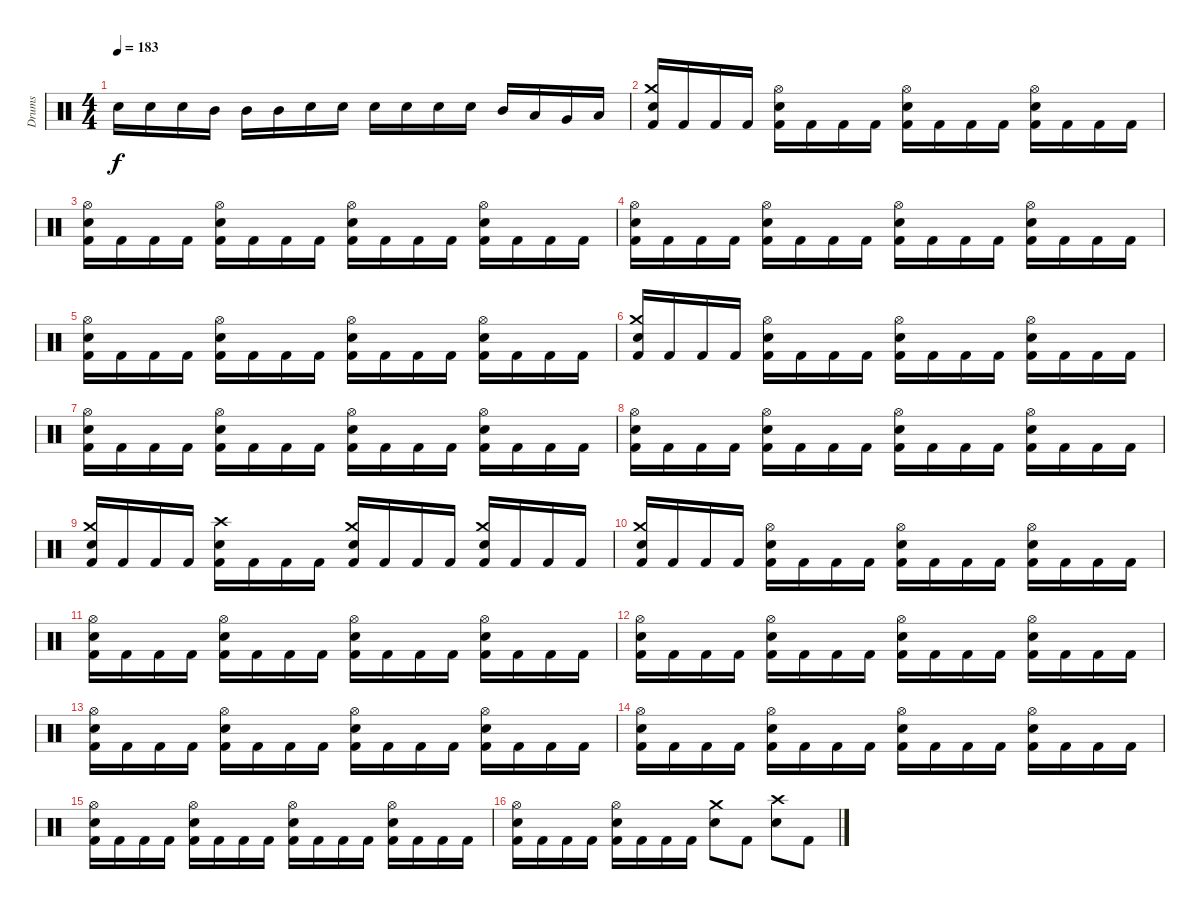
\track ("Drums" "Drums") {instrument percussion}
\staff {score}
\articulation defaults
\ts (4 4)
\tempo 183
\clef neutral
\ks c "Electric Snare (hit)".16{dy f} "Electric Snare (hit)".16 "Electric Snare (hit)".16 "Mid Tom (hit)".16 "Mid Tom (hit)".16 "Mid Tom (hit)".16 "Electric Snare (hit)".16 "Electric Snare (hit)".16 "Electric Snare (hit)".16 "Electric Snare (hit)".16 "Electric Snare (hit)".16 "Electric Snare (hit)".16 "Mid Tom (hit)".16 "Low Tom (hit)".16 "Very Low Tom (hit)".16 "Low Floor Tom (hit)".16
|
("Crash medium (hit)" "Electric Snare (hit)" "Kick (hit) 2").16 "Kick (hit) 2".16 "Kick (hit) 2".16 "Kick (hit) 2".16 ("Hi-Hat (open)" "Electric Snare (hit)" "Kick (hit) 2").16 "Kick (hit) 2".16 "Kick (hit) 2".16 "Kick (hit) 2".16 ("Hi-Hat (open)" "Electric Snare (hit)" "Kick (hit) 2").16 "Kick (hit) 2".16 "Kick (hit) 2".16 "Kick (hit) 2".16 ("Hi-Hat (open)" "Electric Snare (hit)" "Kick (hit) 2").16 "Kick (hit) 2".16 "Kick (hit) 2".16 "Kick (hit) 2".16 |
("Hi-Hat (open)" "Electric Snare (hit)" "Kick (hit) 2").16 "Kick (hit) 2".16 "Kick (hit) 2".16 "Kick (hit) 2".16 ("Hi-Hat (open)" "Electric Snare (hit)" "Kick (hit) 2").16 "Kick (hit) 2".16 "Kick (hit) 2".16 "Kick (hit) 2".16 ("Hi-Hat (open)" "Electric Snare (hit)" "Kick (hit) 2").16 "Kick (hit) 2".16 "Kick (hit) 2".16 "Kick (hit) 2".16 ("Hi-Hat (open)" "Electric Snare (hit)" "Kick (hit) 2").16 "Kick (hit) 2".16 "Kick (hit) 2".16 "Kick (hit) 2".16 |
("Hi-Hat (open)" "Electric Snare (hit)" "Kick (hit) 2").16 "Kick (hit) 2".16 "Kick (hit) 2".16 "Kick (hit) 2".16 ("Hi-Hat (open)" "Electric Snare (hit)" "Kick (hit) 2").16 "Kick (hit) 2".16 "Kick (hit) 2".16 "Kick (hit) 2".16 ("Hi-Hat (open)" "Electric Snare (hit)" "Kick (hit) 2").16 "Kick (hit) 2".16 "Kick (hit) 2".16 "Kick (hit) 2".16 ("Hi-Hat (open)" "Electric Snare (hit)" "Kick (hit) 2").16 "Kick (hit) 2".16 "Kick (hit) 2".16 "Kick (hit) 2".16 |
("Hi-Hat (open)" "Electric Snare (hit)" "Kick (hit) 2").16 "Kick (hit) 2".16 "Kick (hit) 2".16 "Kick (hit) 2".16 ("Hi-Hat (open)" "Electric Snare (hit)" "Kick (hit) 2").16 "Kick (hit) 2".16 "Kick (hit) 2".16 "Kick (hit) 2".16 ("Hi-Hat (open)" "Electric Snare (hit)" "Kick (hit) 2").16 "Kick (hit) 2".16 "Kick (hit) 2".16 "Kick (hit) 2".16 ("Hi-Hat (open)" "Electric Snare (hit)" "Kick (hit) 2").16 "Kick (hit) 2".16 "Kick (hit) 2".16 "Kick (hit) 2".16 |
("Crash medium (hit)" "Electric Snare (hit)" "Kick (hit) 2").16 "Kick (hit) 2".16 "Kick (hit) 2".16 "Kick (hit) 2".16 ("Hi-Hat (open)" "Electric Snare (hit)" "Kick (hit) 2").16 "Kick (hit) 2".16 "Kick (hit) 2".16 "Kick (hit) 2".16 ("Hi-Hat (open)" "Electric Snare (hit)" "Kick (hit) 2").16 "Kick (hit) 2".16 "Kick (hit) 2".16 "Kick (hit) 2".16 ("Hi-Hat (open)" "Electric Snare (hit)" "Kick (hit) 2").16 "Kick (hit) 2".16 "Kick (hit) 2".16 "Kick (hit) 2".16 |
("Hi-Hat (open)" "Electric Snare (hit)" "Kick (hit) 2").16 "Kick (hit) 2".16 "Kick (hit) 2".16 "Kick (hit) 2".16 ("Hi-Hat (open)" "Electric Snare (hit)" "Kick (hit) 2").16 "Kick (hit) 2".16 "Kick (hit) 2".16 "Kick (hit) 2".16 ("Hi-Hat (open)" "Electric Snare (hit)" "Kick (hit) 2").16 "Kick (hit) 2".16 "Kick (hit) 2".16 "Kick (hit) 2".16 ("Hi-Hat (open)" "Electric Snare (hit)" "Kick (hit) 2").16 "Kick (hit) 2".16 "Kick (hit) 2".16 "Kick (hit) 2".16 |
("Hi-Hat (open)" "Electric Snare (hit)" "Kick (hit) 2").16 "Kick (hit) 2".16 "Kick (hit) 2".16 "Kick (hit) 2".16 ("Hi-Hat (open)" "Electric Snare (hit)" "Kick (hit) 2").16 "Kick (hit) 2".16 "Kick (hit) 2".16 "Kick (hit) 2".16 ("Hi-Hat (open)" "Electric Snare (hit)" "Kick (hit) 2").16 "Kick (hit) 2".16 "Kick (hit) 2".16 "Kick (hit) 2".16 ("Hi-Hat (open)" "Electric Snare (hit)" "Kick (hit) 2").16 "Kick (hit) 2".16 "Kick (hit) 2".16 "Kick (hit) 2".16 |
("Crash medium (hit)" "Electric Snare (hit)" "Kick (hit) 2").16 "Kick (hit) 2".16 "Kick (hit) 2".16 "Kick (hit) 2".16 ("Crash high (hit)" "Electric Snare (hit)" "Kick (hit) 2").16 "Kick (hit) 2".16 "Kick (hit) 2".16 "Kick (hit) 2".16 ("Crash medium (hit)" "Electric Snare (hit)" "Kick (hit) 2").16 "Kick (hit) 2".16 "Kick (hit) 2".16 "Kick (hit) 2".16 ("Crash medium (hit)" "Electric Snare (hit)" "Kick (hit) 2").16 "Kick (hit) 2".16 "Kick (hit) 2".16 "Kick (hit) 2".16 |
("Crash medium (hit)" "Electric Snare (hit)" "Kick (hit) 2").16 "Kick (hit) 2".16 "Kick (hit) 2".16 "Kick (hit) 2".16 ("Hi-Hat (open)" "Electric Snare (hit)" "Kick (hit) 2").16 "Kick (hit) 2".16 "Kick (hit) 2".16 "Kick (hit) 2".16 ("Hi-Hat (open)" "Electric Snare (hit)" "Kick (hit) 2").16 "Kick (hit) 2".16 "Kick (hit) 2".16 "Kick (hit) 2".16 ("Hi-Hat (open)" "Electric Snare (hit)" "Kick (hit) 2").16 "Kick (hit) 2".16 "Kick (hit) 2".16 "Kick (hit) 2".16 |
("Hi-Hat (open)" "Electric Snare (hit)" "Kick (hit) 2").16 "Kick (hit) 2".16 "Kick (hit) 2".16 "Kick (hit) 2".16 ("Hi-Hat (open)" "Electric Snare (hit)" "Kick (hit) 2").16 "Kick (hit) 2".16 "Kick (hit) 2".16 "Kick (hit) 2".16 ("Hi-Hat (open)" "Electric Snare (hit)" "Kick (hit) 2").16 "Kick (hit) 2".16 "Kick (hit) 2".16 "Kick (hit) 2".16 ("Hi-Hat (open)" "Electric Snare (hit)" "Kick (hit) 2").16 "Kick (hit) 2".16 "Kick (hit) 2".16 "Kick (hit) 2".16 |
("Hi-Hat (open)" "Electric Snare (hit)" "Kick (hit) 2").16 "Kick (hit) 2".16 "Kick (hit) 2".16 "Kick (hit) 2".16 ("Hi-Hat (open)" "Electric Snare (hit)" "Kick (hit) 2").16 "Kick (hit) 2".16 "Kick (hit) 2".16 "Kick (hit) 2".16 ("Hi-Hat (open)" "Electric Snare (hit)" "Kick (hit) 2").16 "Kick (hit) 2".16 "Kick (hit) 2".16 "Kick (hit) 2".16 ("Hi-Hat (open)" "Electric Snare (hit)" "Kick (hit) 2").16 "Kick (hit) 2".16 "Kick (hit) 2".16 "Kick (hit) 2".16 |
("Hi-Hat (open)" "Electric Snare (hit)" "Kick (hit) 2").16 "Kick (hit) 2".16 "Kick (hit) 2".16 "Kick (hit) 2".16 ("Hi-Hat (open)" "Electric Snare (hit)" "Kick (hit) 2").16 "Kick (hit) 2".16 "Kick (hit) 2".16 "Kick (hit) 2".16 ("Hi-Hat (open)" "Electric Snare (hit)" "Kick (hit) 2").16 "Kick (hit) 2".16 "Kick (hit) 2".16 "Kick (hit) 2".16 ("Hi-Hat (open)" "Electric Snare (hit)" "Kick (hit) 2").16 "Kick (hit) 2".16 "Kick (hit) 2".16 "Kick (hit) 2".16 |
("Hi-Hat (open)" "Electric Snare (hit)" "Kick (hit) 2").16 "Kick (hit) 2".16 "Kick (hit) 2".16 "Kick (hit) 2".16 ("Hi-Hat (open)" "Electric Snare (hit)" "Kick (hit) 2").16 "Kick (hit) 2".16 "Kick (hit) 2".16 "Kick (hit) 2".16 ("Hi-Hat (open)" "Electric Snare (hit)" "Kick (hit) 2").16 "Kick (hit) 2".16 "Kick (hit) 2".16 "Kick (hit) 2".16 ("Hi-Hat (open)" "Electric Snare (hit)" "Kick (hit) 2").16 "Kick (hit) 2".16 "Kick (hit) 2".16 "Kick (hit) 2".16 |
("Hi-Hat (open)" "Electric Snare (hit)" "Kick (hit) 2").16 "Kick (hit) 2".16 "Kick (hit) 2".16 "Kick (hit) 2".16 ("Hi-Hat (open)" "Electric Snare (hit)" "Kick (hit) 2").16 "Kick (hit) 2".16 "Kick (hit) 2".16 "Kick (hit) 2".16 ("Hi-Hat (open)" "Electric Snare (hit)" "Kick (hit) 2").16 "Kick (hit) 2".16 "Kick (hit) 2".16 "Kick (hit) 2".16 ("Hi-Hat (open)" "Electric Snare (hit)" "Kick (hit) 2").16 "Kick (hit) 2".16 "Kick (hit) 2".16 "Kick (hit) 2".16 |
("Hi-Hat (open)" "Electric Snare (hit)" "Kick (hit) 2").16 "Kick (hit) 2".16 "Kick (hit) 2".16 "Kick (hit) 2".16 ("Hi-Hat (open)" "Electric Snare (hit)" "Kick (hit) 2").16 "Kick (hit) 2".16 "Kick (hit) 2".16 "Kick (hit) 2".16 ("Crash medium (hit)" "Electric Snare (hit)").8 "Kick (hit) 2".8 ("Crash high (hit)" "Electric Snare (hit)").8 "Kick (hit) 2".8
